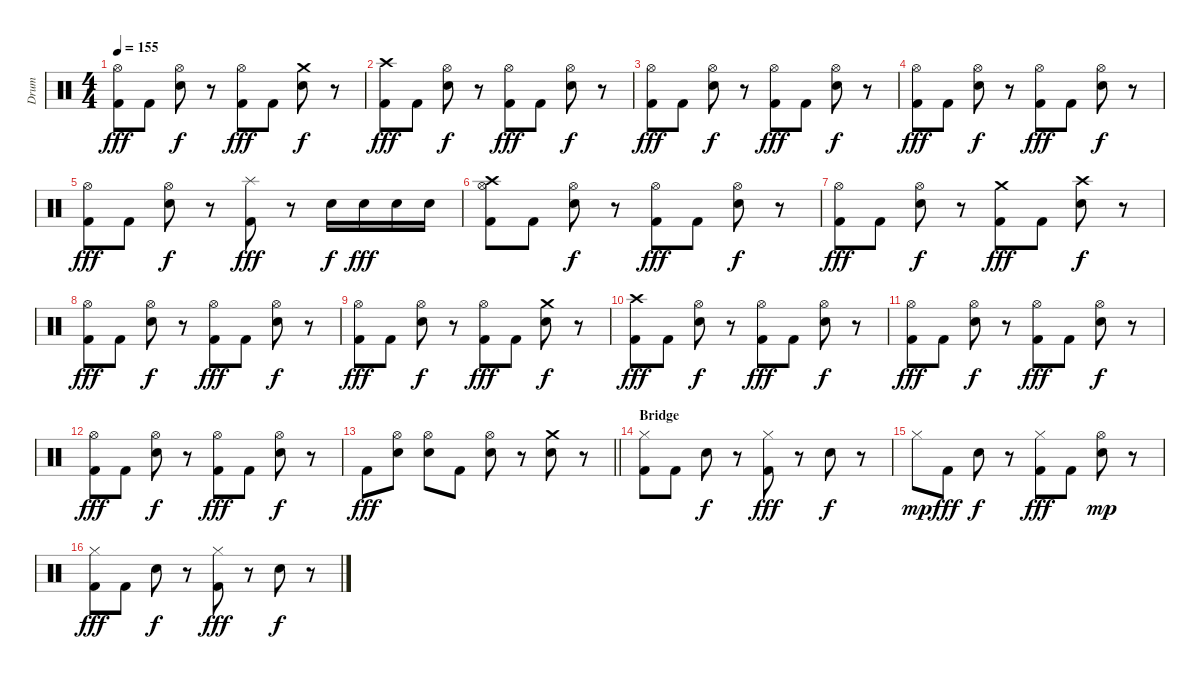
\track ("Drum" "Drum") {instrument percussion}
\staff {score}
\articulation defaults
\ts (4 4)
\tempo 155
\clef neutral
\ks c
("Hi-Hat (open)" "Kick (hit) 2").8{dy fff} "Kick (hit) 2".8 ("Hi-Hat (open)" "Snare (hit) 2").8{dy f} r.8 ("Hi-Hat (open)" "Kick (hit) 2").8{dy fff} "Kick (hit) 2".8 ("Crash medium (hit)" "Snare (hit) 2").8{dy f} r.8 |
("Crash high (hit)" "Kick (hit) 2").8{dy fff} "Kick (hit) 2".8 ("Hi-Hat (open)" "Snare (hit) 2").8{dy f} r.8 ("Hi-Hat (open)" "Kick (hit) 2").8{dy fff} "Kick (hit) 2".8 ("Hi-Hat (open)" "Snare (hit) 2").8{dy f} r.8 |
("Hi-Hat (open)" "Kick (hit) 2").8{dy fff} "Kick (hit) 2".8 ("Hi-Hat (open)" "Snare (hit) 2").8{dy f} r.8 ("Hi-Hat (open)" "Kick (hit) 2").8{dy fff} "Kick (hit) 2".8 ("Hi-Hat (open)" "Snare (hit) 2").8{dy f} r.8 |
("Hi-Hat (open)" "Kick (hit) 2").8{dy fff} "Kick (hit) 2".8 ("Hi-Hat (open)" "Snare (hit) 2").8{dy f} r.8 ("Hi-Hat (open)" "Kick (hit) 2").8{dy fff} "Kick (hit) 2".8 ("Hi-Hat (open)" "Snare (hit) 2").8{dy f} r.8 |
("Hi-Hat (open)" "Kick (hit) 2").8{dy fff} "Kick (hit) 2".8 ("Hi-Hat (open)" "Snare (hit) 2").8{dy f} r.8 ("Splash (hit)" "Kick (hit) 2").8{dy fff} r.8 "Snare (hit) 2".16{dy f} "Snare (hit) 2".16{dy fff} "Snare (hit) 2".16 "Snare (hit) 2".16 |
("Hi-Hat (open)" "Crash high (hit)" "Kick (hit) 2").8 "Kick (hit) 2".8 ("Hi-Hat (open)" "Snare (hit) 2").8{dy f} r.8 ("Hi-Hat (open)" "Kick (hit) 2").8{dy fff} "Kick (hit) 2".8 ("Hi-Hat (open)" "Snare (hit) 2").8{dy f} r.8 |
("Hi-Hat (open)" "Kick (hit) 2").8{dy fff} "Kick (hit) 2".8 ("Hi-Hat (open)" "Snare (hit) 2").8{dy f} r.8 ("Crash medium (hit)" "Kick (hit) 2").8{dy fff} "Kick (hit) 2".8 ("Crash high (hit)" "Snare (hit) 2").8{dy f} r.8 |
("Hi-Hat (open)" "Kick (hit) 2").8{dy fff} "Kick (hit) 2".8 ("Hi-Hat (open)" "Snare (hit) 2").8{dy f} r.8 ("Hi-Hat (open)" "Kick (hit) 2").8{dy fff} "Kick (hit) 2".8 ("Hi-Hat (open)" "Snare (hit) 2").8{dy f} r.8 |
("Hi-Hat (open)" "Kick (hit) 2").8{dy fff} "Kick (hit) 2".8 ("Hi-Hat (open)" "Snare (hit) 2").8{dy f} r.8 ("Hi-Hat (open)" "Kick (hit) 2").8{dy fff} "Kick (hit) 2".8 ("Crash medium (hit)" "Snare (hit) 2").8{dy f} r.8 |
("Crash high (hit)" "Kick (hit) 2").8{dy fff} "Kick (hit) 2".8 ("Hi-Hat (open)" "Snare (hit) 2").8{dy f} r.8 ("Hi-Hat (open)" "Kick (hit) 2").8{dy fff} "Kick (hit) 2".8 ("Hi-Hat (open)" "Snare (hit) 2").8{dy f} r.8 |
("Hi-Hat (open)" "Kick (hit) 2").8{dy fff} "Kick (hit) 2".8 ("Hi-Hat (open)" "Snare (hit) 2").8{dy f} r.8 ("Hi-Hat (open)" "Kick (hit) 2").8{dy fff} "Kick (hit) 2".8 ("Hi-Hat (open)" "Snare (hit) 2").8{dy f} r.8 |
("Hi-Hat (open)" "Kick (hit) 2").8{dy fff} "Kick (hit) 2".8 ("Hi-Hat (open)" "Snare (hit) 2").8{dy f} r.8 ("Hi-Hat (open)" "Kick (hit) 2").8{dy fff} "Kick (hit) 2".8 ("Hi-Hat (open)" "Snare (hit) 2").8{dy f} r.8 |
\barLineRight lightlight "Kick (hit) 2".8{dy fff}
("Hi-Hat (open)" "Snare (hit) 2").8 ("Hi-Hat (open)" "Snare (hit) 2").8 "Kick (hit) 2".8 ("Hi-Hat (open)" "Snare (hit) 2").8 r.8 ("Crash medium (hit)" "Snare (hit) 2").8 r.8 |
\section ("" "Bridge")
("Hi-Hat (closed)" "Kick (hit) 2").8 "Kick (hit) 2".8 "Electric Snare (hit)".8{dy f} r.8 ("Hi-Hat (closed)" "Kick (hit) 2").8{dy fff} r.8 "Electric Snare (hit)".8{dy f} r.8 |
"Hi-Hat (closed)".8{dy mp} "Kick (hit) 2".8{dy fff} "Electric Snare (hit)".8{dy f} r.8 ("Hi-Hat (closed)" "Kick (hit) 2").8{dy fff} "Kick (hit) 2".8 ("Hi-Hat (open)" "Electric Snare (hit)").8{dy mp} r.8 |
("Hi-Hat (closed)" "Kick (hit) 2").8{dy fff} "Kick (hit) 2".8 "Electric Snare (hit)".8{dy f} r.8 ("Hi-Hat (closed)" "Kick (hit) 2").8{dy fff} r.8 "Electric Snare (hit)".8{dy f} r.8
